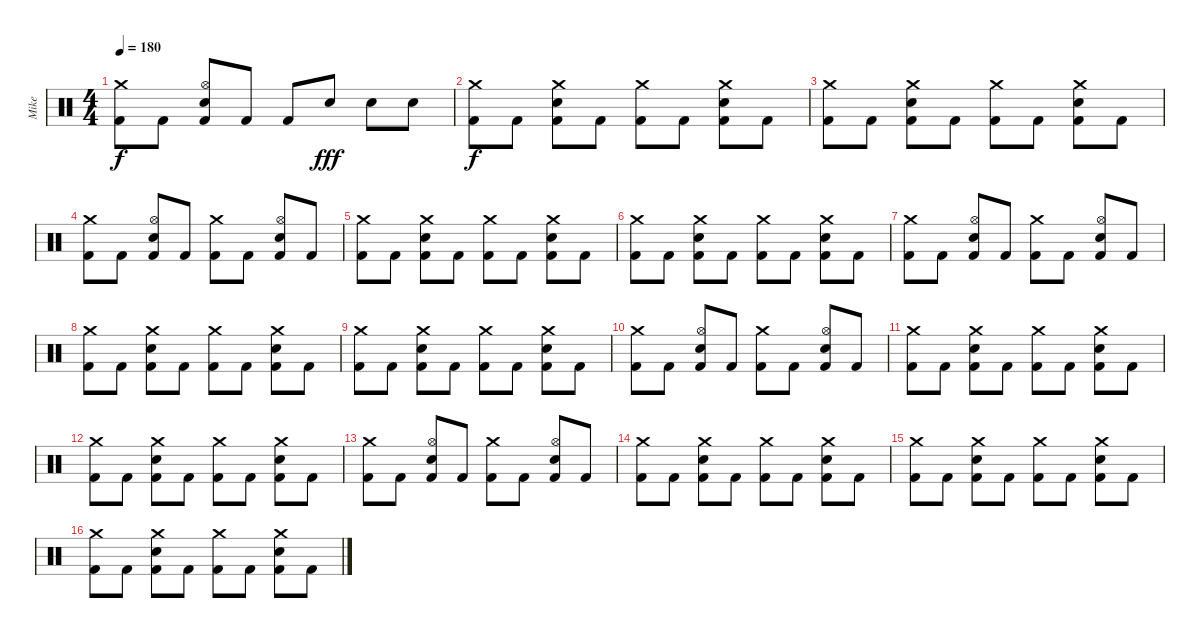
\track ("Mike" "Mike") {instrument percussion}
\staff {score}
\articulation defaults
\ts (4 4)
\tempo 180
\clef neutral
\ks c
("Crash medium (hit)" "Kick (hit) 2").8{dy f volume 7} "Kick (hit) 2".8 ("Hi-Hat (open)" "Snare (hit) 2" "Kick (hit) 2").8 "Kick (hit) 2".8 "Kick (hit) 2".8 "Snare (hit) 2".8{dy fff} "Snare (hit) 2".8 "Snare (hit) 2".8 |
("Crash medium (hit)" "Kick (hit) 2").8{dy f} "Kick (hit) 2".8 ("Crash medium (hit)" "Snare (hit) 2" "Kick (hit) 2").8 "Kick (hit) 2".8 ("Crash medium (hit)" "Kick (hit) 2").8 "Kick (hit) 2".8 ("Crash medium (hit)" "Snare (hit) 2" "Kick (hit) 2").8 "Kick (hit) 2".8 |
("Crash medium (hit)" "Kick (hit) 2").8 "Kick (hit) 2".8 ("Crash medium (hit)" "Snare (hit) 2" "Kick (hit) 2").8 "Kick (hit) 2".8 ("Crash medium (hit)" "Kick (hit) 2").8 "Kick (hit) 2".8 ("Crash medium (hit)" "Snare (hit) 2" "Kick (hit) 2").8 "Kick (hit) 2".8 |
("Crash medium (hit)" "Kick (hit) 2").8{volume 6} "Kick (hit) 2".8 ("Hi-Hat (open)" "Snare (hit) 2" "Kick (hit) 2").8 "Kick (hit) 2".8 ("Crash medium (hit)" "Kick (hit) 2").8 "Kick (hit) 2".8 ("Hi-Hat (open)" "Snare (hit) 2" "Kick (hit) 2").8 "Kick (hit) 2".8 |
("Crash medium (hit)" "Kick (hit) 2").8 "Kick (hit) 2".8 ("Crash medium (hit)" "Snare (hit) 2" "Kick (hit) 2").8 "Kick (hit) 2".8 ("Crash medium (hit)" "Kick (hit) 2").8 "Kick (hit) 2".8 ("Crash medium (hit)" "Snare (hit) 2" "Kick (hit) 2").8 "Kick (hit) 2".8 |
("Crash medium (hit)" "Kick (hit) 2").8 "Kick (hit) 2".8 ("Crash medium (hit)" "Snare (hit) 2" "Kick (hit) 2").8 "Kick (hit) 2".8 ("Crash medium (hit)" "Kick (hit) 2").8 "Kick (hit) 2".8 ("Crash medium (hit)" "Snare (hit) 2" "Kick (hit) 2").8 "Kick (hit) 2".8 |
("Crash medium (hit)" "Kick (hit) 2").8{volume 5} "Kick (hit) 2".8 ("Hi-Hat (open)" "Snare (hit) 2" "Kick (hit) 2").8 "Kick (hit) 2".8 ("Crash medium (hit)" "Kick (hit) 2").8 "Kick (hit) 2".8 ("Hi-Hat (open)" "Snare (hit) 2" "Kick (hit) 2").8 "Kick (hit) 2".8 |
("Crash medium (hit)" "Kick (hit) 2").8 "Kick (hit) 2".8 ("Crash medium (hit)" "Snare (hit) 2" "Kick (hit) 2").8 "Kick (hit) 2".8 ("Crash medium (hit)" "Kick (hit) 2").8 "Kick (hit) 2".8 ("Crash medium (hit)" "Snare (hit) 2" "Kick (hit) 2").8 "Kick (hit) 2".8 |
("Crash medium (hit)" "Kick (hit) 2").8 "Kick (hit) 2".8 ("Crash medium (hit)" "Snare (hit) 2" "Kick (hit) 2").8 "Kick (hit) 2".8 ("Crash medium (hit)" "Kick (hit) 2").8 "Kick (hit) 2".8 ("Crash medium (hit)" "Snare (hit) 2" "Kick (hit) 2").8 "Kick (hit) 2".8 |
("Crash medium (hit)" "Kick (hit) 2").8{volume 4} "Kick (hit) 2".8 ("Hi-Hat (open)" "Snare (hit) 2" "Kick (hit) 2").8 "Kick (hit) 2".8 ("Crash medium (hit)" "Kick (hit) 2").8 "Kick (hit) 2".8 ("Hi-Hat (open)" "Snare (hit) 2" "Kick (hit) 2").8 "Kick (hit) 2".8 |
("Crash medium (hit)" "Kick (hit) 2").8 "Kick (hit) 2".8 ("Crash medium (hit)" "Snare (hit) 2" "Kick (hit) 2").8 "Kick (hit) 2".8 ("Crash medium (hit)" "Kick (hit) 2").8 "Kick (hit) 2".8 ("Crash medium (hit)" "Snare (hit) 2" "Kick (hit) 2").8 "Kick (hit) 2".8 |
("Crash medium (hit)" "Kick (hit) 2").8 "Kick (hit) 2".8 ("Crash medium (hit)" "Snare (hit) 2" "Kick (hit) 2").8 "Kick (hit) 2".8 ("Crash medium (hit)" "Kick (hit) 2").8 "Kick (hit) 2".8 ("Crash medium (hit)" "Snare (hit) 2" "Kick (hit) 2").8 "Kick (hit) 2".8 |
("Crash medium (hit)" "Kick (hit) 2").8{volume 3} "Kick (hit) 2".8 ("Hi-Hat (open)" "Snare (hit) 2" "Kick (hit) 2").8 "Kick (hit) 2".8 ("Crash medium (hit)" "Kick (hit) 2").8 "Kick (hit) 2".8 ("Hi-Hat (open)" "Snare (hit) 2" "Kick (hit) 2").8 "Kick (hit) 2".8 |
("Crash medium (hit)" "Kick (hit) 2").8 "Kick (hit) 2".8 ("Crash medium (hit)" "Snare (hit) 2" "Kick (hit) 2").8 "Kick (hit) 2".8 ("Crash medium (hit)" "Kick (hit) 2").8 "Kick (hit) 2".8 ("Crash medium (hit)" "Snare (hit) 2" "Kick (hit) 2").8 "Kick (hit) 2".8 |
("Crash medium (hit)" "Kick (hit) 2").8 "Kick (hit) 2".8 ("Crash medium (hit)" "Snare (hit) 2" "Kick (hit) 2").8 "Kick (hit) 2".8 ("Crash medium (hit)" "Kick (hit) 2").8 "Kick (hit) 2".8 ("Crash medium (hit)" "Snare (hit) 2" "Kick (hit) 2").8 "Kick (hit) 2".8 |
("Crash medium (hit)" "Kick (hit) 2").8{volume 2} "Kick (hit) 2".8 ("Crash medium (hit)" "Snare (hit) 2" "Kick (hit) 2").8 "Kick (hit) 2".8 ("Crash medium (hit)" "Kick (hit) 2").8 "Kick (hit) 2".8 ("Crash medium (hit)" "Snare (hit) 2" "Kick (hit) 2").8 "Kick (hit) 2".8
